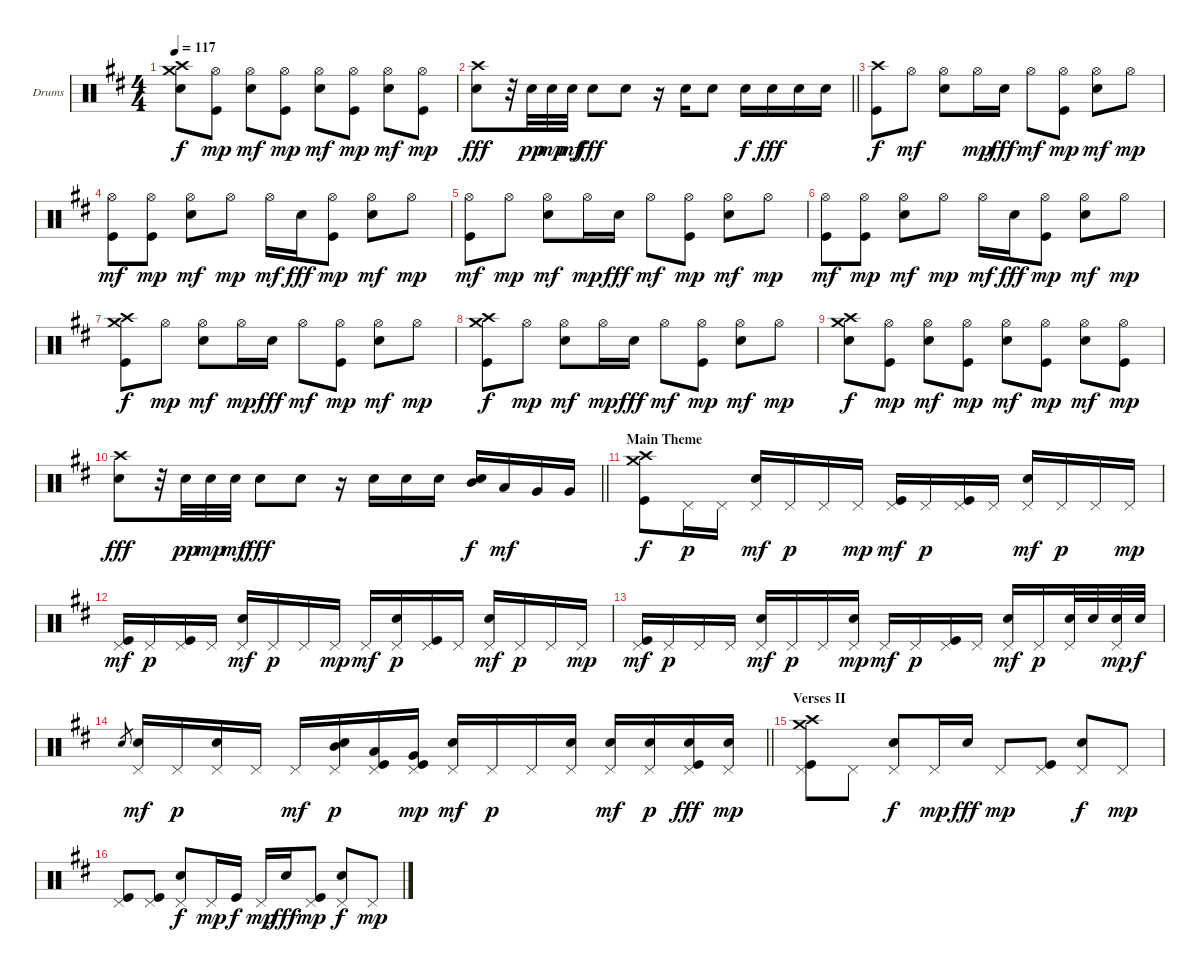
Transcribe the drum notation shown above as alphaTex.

\bracketExtendMode groupsimilarinstruments
\firstSystemTrackNameOrientation horizontal
\otherSystemsTrackNameOrientation horizontal
\track ("Drumkit" "Drums") {instrument percussion}
\staff {score}
\articulation defaults
\ts (4 4)
\tempo 117
\clef neutral
\ks d
("Crash high (hit)" "Crash medium (hit)" "Snare (hit) 2").8{dy f} ("Hi-Hat (open)" "Kick (hit)").8{dy mp} ("Hi-Hat (open)" "Snare (hit) 2").8{dy mf} ("Hi-Hat (open)" "Kick (hit)").8{dy mp} ("Hi-Hat (open)" "Snare (hit) 2").8{dy mf} ("Hi-Hat (open)" "Kick (hit)").8{dy mp} ("Hi-Hat (open)" "Snare (hit) 2").8{dy mf} ("Hi-Hat (open)" "Kick (hit)").8{dy mp} |
\barLineRight lightlight
("Crash high (hit)" "Snare (hit) 2").8{dy fff} r.32 "Snare (hit) 2".32{dy pp} "Snare (hit) 2".32{dy mp} "Snare (hit) 2".32{dy mf} "Snare (hit) 2".8{dy fff} "Snare (hit) 2".8 r.16 "Snare (hit) 2".16 "Snare (hit) 2".8 "Snare (hit) 2".16{dy f} "Snare (hit) 2".16{dy fff} "Snare (hit) 2".16 "Snare (hit) 2".16 |
("Crash high (hit)" "Kick (hit)").8{dy f} "Hi-Hat (open)".8{dy mf} ("Hi-Hat (open)" "Snare (hit) 2").8 "Hi-Hat (open)".16{dy mp} "Snare (hit) 2".16{dy fff} "Hi-Hat (open)".8{dy mf} ("Hi-Hat (open)" "Kick (hit)").8{dy mp} ("Hi-Hat (open)" "Snare (hit) 2").8{dy mf} "Hi-Hat (open)".8{dy mp} |
("Hi-Hat (open)" "Kick (hit)").8{dy mf} ("Hi-Hat (open)" "Kick (hit)").8{dy mp} ("Hi-Hat (open)" "Snare (hit) 2").8{dy mf} "Hi-Hat (open)".8{dy mp} "Hi-Hat (open)".16{dy mf} "Snare (hit) 2".16{dy fff} ("Hi-Hat (open)" "Kick (hit)").8{dy mp} ("Hi-Hat (open)" "Snare (hit) 2").8{dy mf} "Hi-Hat (open)".8{dy mp} |
("Hi-Hat (open)" "Kick (hit)").8{dy mf} "Hi-Hat (open)".8{dy mp} ("Hi-Hat (open)" "Snare (hit) 2").8{dy mf} "Hi-Hat (open)".16{dy mp} "Snare (hit) 2".16{dy fff} "Hi-Hat (open)".8{dy mf} ("Hi-Hat (open)" "Kick (hit)").8{dy mp} ("Hi-Hat (open)" "Snare (hit) 2").8{dy mf} "Hi-Hat (open)".8{dy mp} |
("Hi-Hat (open)" "Kick (hit)").8{dy mf} ("Hi-Hat (open)" "Kick (hit)").8{dy mp} ("Hi-Hat (open)" "Snare (hit) 2").8{dy mf} "Hi-Hat (open)".8{dy mp} "Hi-Hat (open)".16{dy mf} "Snare (hit) 2".16{dy fff} ("Hi-Hat (open)" "Kick (hit)").8{dy mp} ("Hi-Hat (open)" "Snare (hit) 2").8{dy mf} "Hi-Hat (open)".8{dy mp} |
("Crash medium (hit)" "Crash high (hit)" "Kick (hit)").8{dy f} "Hi-Hat (open)".8{dy mp} ("Hi-Hat (open)" "Snare (hit) 2").8{dy mf} "Hi-Hat (open)".16{dy mp} "Snare (hit) 2".16{dy fff} "Hi-Hat (open)".8{dy mf} ("Hi-Hat (open)" "Kick (hit)").8{dy mp} ("Hi-Hat (open)" "Snare (hit) 2").8{dy mf} "Hi-Hat (open)".8{dy mp} |
("Crash medium (hit)" "Crash high (hit)" "Kick (hit)").8{dy f} "Hi-Hat (open)".8{dy mp} ("Hi-Hat (open)" "Snare (hit) 2").8{dy mf} "Hi-Hat (open)".16{dy mp} "Snare (hit) 2".16{dy fff} "Hi-Hat (open)".8{dy mf} ("Hi-Hat (open)" "Kick (hit)").8{dy mp} ("Hi-Hat (open)" "Snare (hit) 2").8{dy mf} "Hi-Hat (open)".8{dy mp} |
("Crash high (hit)" "Crash medium (hit)" "Snare (hit) 2").8{dy f} ("Hi-Hat (open)" "Kick (hit)").8{dy mp} ("Hi-Hat (open)" "Snare (hit) 2").8{dy mf} ("Hi-Hat (open)" "Kick (hit)").8{dy mp} ("Hi-Hat (open)" "Snare (hit) 2").8{dy mf} ("Hi-Hat (open)" "Kick (hit)").8{dy mp} ("Hi-Hat (open)" "Snare (hit) 2").8{dy mf} ("Hi-Hat (open)" "Kick (hit)").8{dy mp} |
\barLineRight lightlight
("Crash high (hit)" "Snare (hit) 2").8{dy fff} r.32 "Snare (hit) 2".32{dy pp} "Snare (hit) 2".32{dy mp} "Snare (hit) 2".32{dy mf} "Snare (hit) 2".8{dy fff} "Snare (hit) 2".8 r.16 "Snare (hit) 2".16 "Snare (hit) 2".16 "Snare (hit) 2".16 ("Snare (hit) 2" "Mid Tom (hit)").16{dy f} "Low Tom (hit)".16{dy mf} "Very Low Tom (hit)".16 "Very Low Tom (hit)".16 |
\section ("" "Main Theme")
("Crash high (hit)" "Crash medium (hit)" "Kick (hit)").8{dy f} "Pedal Hi-Hat (hit)".16{dy p} "Pedal Hi-Hat (hit)".16 ("Pedal Hi-Hat (hit)" "Snare (hit) 2").16{dy mf} "Pedal Hi-Hat (hit)".16{dy p} "Pedal Hi-Hat (hit)".16 "Pedal Hi-Hat (hit)".16{dy mp} ("Pedal Hi-Hat (hit)" "Kick (hit)").16{dy mf} "Pedal Hi-Hat (hit)".16{dy p} ("Pedal Hi-Hat (hit)" "Kick (hit)").16 "Pedal Hi-Hat (hit)".16 ("Pedal Hi-Hat (hit)" "Snare (hit) 2").16{dy mf} "Pedal Hi-Hat (hit)".16{dy p} "Pedal Hi-Hat (hit)".16 "Pedal Hi-Hat (hit)".16{dy mp} |
("Pedal Hi-Hat (hit)" "Kick (hit)").16{dy mf} "Pedal Hi-Hat (hit)".16{dy p} ("Pedal Hi-Hat (hit)" "Kick (hit)").16 "Pedal Hi-Hat (hit)".16 ("Pedal Hi-Hat (hit)" "Snare (hit) 2").16{dy mf} "Pedal Hi-Hat (hit)".16{dy p} "Pedal Hi-Hat (hit)".16 "Pedal Hi-Hat (hit)".16{dy mp} "Pedal Hi-Hat (hit)".16{dy mf} ("Pedal Hi-Hat (hit)" "Snare (hit) 2").16{dy p} ("Pedal Hi-Hat (hit)" "Kick (hit)").16 "Pedal Hi-Hat (hit)".16 ("Pedal Hi-Hat (hit)" "Snare (hit) 2").16{dy mf} "Pedal Hi-Hat (hit)".16{dy p} "Pedal Hi-Hat (hit)".16 "Pedal Hi-Hat (hit)".16{dy mp} |
("Pedal Hi-Hat (hit)" "Kick (hit)").16{dy mf} "Pedal Hi-Hat (hit)".16{dy p} "Pedal Hi-Hat (hit)".16 "Pedal Hi-Hat (hit)".16 ("Pedal Hi-Hat (hit)" "Snare (hit) 2").16{dy mf} "Pedal Hi-Hat (hit)".16{dy p} "Pedal Hi-Hat (hit)".16 ("Pedal Hi-Hat (hit)" "Snare (hit) 2").16{dy mp} "Pedal Hi-Hat (hit)".16{dy mf} "Pedal Hi-Hat (hit)".16{dy p} ("Pedal Hi-Hat (hit)" "Kick (hit)").16 "Pedal Hi-Hat (hit)".16 ("Pedal Hi-Hat (hit)" "Snare (hit) 2").16{dy mf} "Pedal Hi-Hat (hit)".16{dy p} ("Pedal Hi-Hat (hit)" "Snare (hit) 2").32 "Snare (hit) 2".32 ("Snare (hit) 2" "Pedal Hi-Hat (hit)").32{dy mp} "Snare (hit) 2".32{dy f} |
\barLineRight lightlight "Snare (hit) 2".8{gr}
("Pedal Hi-Hat (hit)" "Snare (hit) 2").16{dy mf} "Pedal Hi-Hat (hit)".16{dy p} ("Pedal Hi-Hat (hit)" "Snare (hit) 2").16 "Pedal Hi-Hat (hit)".16 "Pedal Hi-Hat (hit)".16{dy mf} ("Pedal Hi-Hat (hit)" "Snare (hit) 2" "Mid Tom (hit)").16{dy p} ("Pedal Hi-Hat (hit)" "Kick (hit)" "Low Tom (hit)").16 ("Pedal Hi-Hat (hit)" "Kick (hit)" "Very Low Tom (hit)").16{dy mp} ("Pedal Hi-Hat (hit)" "Snare (hit) 2").16{dy mf} "Pedal Hi-Hat (hit)".16{dy p} "Pedal Hi-Hat (hit)".16 ("Pedal Hi-Hat (hit)" "Snare (hit) 2").16 ("Pedal Hi-Hat (hit)" "Snare (hit) 2").16{dy mf} ("Pedal Hi-Hat (hit)" "Snare (hit) 2").16{dy p} ("Kick (hit)" "Snare (hit) 2" "Pedal Hi-Hat (hit)").16{dy fff} ("Pedal Hi-Hat (hit)" "Snare (hit) 2").16{dy mp} |
\section ("" "Verses II")
("Pedal Hi-Hat (hit)" "Crash high (hit)" "Crash medium (hit)" "Kick (hit)").8 "Pedal Hi-Hat (hit)".8 ("Pedal Hi-Hat (hit)" "Snare (hit) 2").8{dy f} "Pedal Hi-Hat (hit)".16{dy mp} "Snare (hit) 2".16{dy fff} "Pedal Hi-Hat (hit)".8{dy mp} ("Pedal Hi-Hat (hit)" "Kick (hit)").8 ("Pedal Hi-Hat (hit)" "Snare (hit) 2").8{dy f} "Pedal Hi-Hat (hit)".8{dy mp} |
("Pedal Hi-Hat (hit)" "Kick (hit)").8 ("Pedal Hi-Hat (hit)" "Kick (hit)").8 ("Pedal Hi-Hat (hit)" "Snare (hit) 2").8{dy f} "Pedal Hi-Hat (hit)".16{dy mp} "Kick (hit)".16{dy f} "Pedal Hi-Hat (hit)".16{dy mp} "Snare (hit) 2".16{dy fff} ("Pedal Hi-Hat (hit)" "Kick (hit)").8{dy mp} ("Pedal Hi-Hat (hit)" "Snare (hit) 2").8{dy f} "Pedal Hi-Hat (hit)".8{dy mp}
